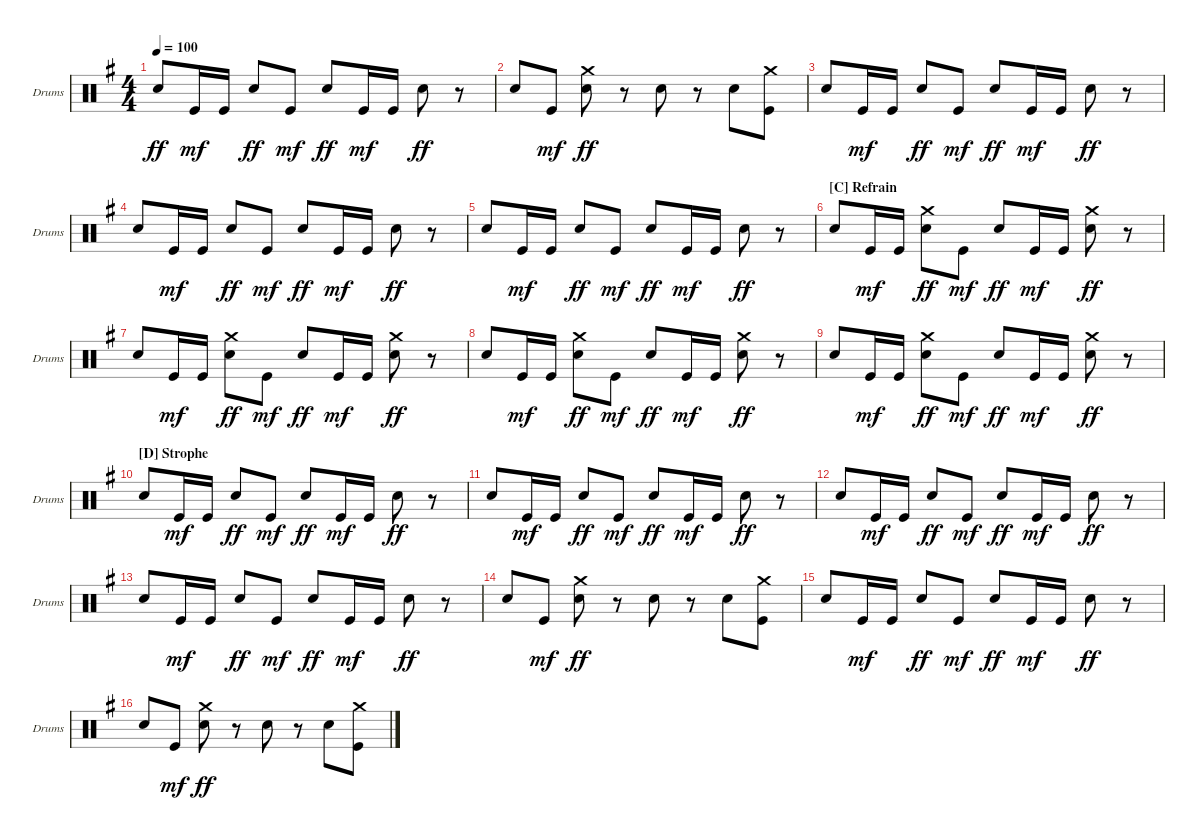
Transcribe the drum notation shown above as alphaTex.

\defaultSystemsLayout 4
\bracketExtendMode groupsimilarinstruments
\singleTrackTrackNamePolicy allsystems
\multiTrackTrackNamePolicy allsystems
\firstSystemTrackNameOrientation horizontal
\otherSystemsTrackNameOrientation horizontal
\track ("Drumkit" "Drums") {instrument percussion}
\staff {score}
\articulation defaults
\ts (4 4)
\tempo 100
\clef neutral
\scale
0.333333
\ks g "Snare (hit) 2".8{dy ff} "Kick (hit)".16{dy mf} "Kick (hit)".16 "Snare (hit) 2".8{dy ff} "Kick (hit)".8{dy mf} "Snare (hit) 2".8{dy ff} "Kick (hit)".16{dy mf} "Kick (hit)".16 "Snare (hit) 2".8{dy ff}
r.8 |
\scale
0.333333 "Snare (hit) 2".8 "Kick (hit)".8{dy mf} ("Crash medium (hit)" "Snare (hit) 2").8{dy ff} r.8 "Snare (hit) 2".8 r.8 "Snare (hit) 2".8 ("Kick (hit)" "Crash medium (hit)").8 |
\scale
0.333333 "Snare (hit) 2".8 "Kick (hit)".16{dy mf} "Kick (hit)".16 "Snare (hit) 2".8{dy ff} "Kick (hit)".8{dy mf} "Snare (hit) 2".8{dy ff} "Kick (hit)".16{dy mf} "Kick (hit)".16 "Snare (hit) 2".8{dy ff} r.8 |
\scale
0.333333 "Snare (hit) 2".8 "Kick (hit)".16{dy mf} "Kick (hit)".16 "Snare (hit) 2".8{dy ff} "Kick (hit)".8{dy mf} "Snare (hit) 2".8{dy ff} "Kick (hit)".16{dy mf} "Kick (hit)".16 "Snare (hit) 2".8{dy ff} r.8 |
\scale
0.333333 "Snare (hit) 2".8 "Kick (hit)".16{dy mf} "Kick (hit)".16 "Snare (hit) 2".8{dy ff} "Kick (hit)".8{dy mf} "Snare (hit) 2".8{dy ff} "Kick (hit)".16{dy mf} "Kick (hit)".16 "Snare (hit) 2".8{dy ff} r.8 |
\section ("C" "Refrain")
\scale
0.333333 "Snare (hit) 2".8 "Kick (hit)".16{dy mf} "Kick (hit)".16 ("Snare (hit) 2" "Crash medium (hit)").8{dy ff} "Kick (hit)".8{dy mf} "Snare (hit) 2".8{dy ff} "Kick (hit)".16{dy mf} "Kick (hit)".16 ("Snare (hit) 2" "Crash medium (hit)").8{dy ff} r.8 |
\scale
0.333333 "Snare (hit) 2".8 "Kick (hit)".16{dy mf} "Kick (hit)".16 ("Snare (hit) 2" "Crash medium (hit)").8{dy ff} "Kick (hit)".8{dy mf} "Snare (hit) 2".8{dy ff} "Kick (hit)".16{dy mf} "Kick (hit)".16 ("Snare (hit) 2" "Crash medium (hit)").8{dy ff} r.8 |
\scale
0.333333 "Snare (hit) 2".8 "Kick (hit)".16{dy mf} "Kick (hit)".16 ("Snare (hit) 2" "Crash medium (hit)").8{dy ff} "Kick (hit)".8{dy mf} "Snare (hit) 2".8{dy ff} "Kick (hit)".16{dy mf} "Kick (hit)".16 ("Snare (hit) 2" "Crash medium (hit)").8{dy ff} r.8 |
\scale
0.333333 "Snare (hit) 2".8 "Kick (hit)".16{dy mf} "Kick (hit)".16 ("Snare (hit) 2" "Crash medium (hit)").8{dy ff} "Kick (hit)".8{dy mf} "Snare (hit) 2".8{dy ff} "Kick (hit)".16{dy mf} "Kick (hit)".16 ("Snare (hit) 2" "Crash medium (hit)").8{dy ff} r.8 |
\section ("D" "Strophe")
\scale
0.333333 "Snare (hit) 2".8 "Kick (hit)".16{dy mf} "Kick (hit)".16 "Snare (hit) 2".8{dy ff} "Kick (hit)".8{dy mf} "Snare (hit) 2".8{dy ff} "Kick (hit)".16{dy mf} "Kick (hit)".16 "Snare (hit) 2".8{dy ff} r.8 |
\scale
0.333333 "Snare (hit) 2".8 "Kick (hit)".16{dy mf} "Kick (hit)".16 "Snare (hit) 2".8{dy ff} "Kick (hit)".8{dy mf} "Snare (hit) 2".8{dy ff} "Kick (hit)".16{dy mf} "Kick (hit)".16 "Snare (hit) 2".8{dy ff} r.8 |
\scale
0.333333 "Snare (hit) 2".8 "Kick (hit)".16{dy mf} "Kick (hit)".16 "Snare (hit) 2".8{dy ff} "Kick (hit)".8{dy mf} "Snare (hit) 2".8{dy ff} "Kick (hit)".16{dy mf} "Kick (hit)".16 "Snare (hit) 2".8{dy ff} r.8 |
\scale
0.333333 "Snare (hit) 2".8 "Kick (hit)".16{dy mf} "Kick (hit)".16 "Snare (hit) 2".8{dy ff} "Kick (hit)".8{dy mf} "Snare (hit) 2".8{dy ff} "Kick (hit)".16{dy mf} "Kick (hit)".16 "Snare (hit) 2".8{dy ff} r.8 |
\scale
0.333333 "Snare (hit) 2".8 "Kick (hit)".8{dy mf} ("Crash medium (hit)" "Snare (hit) 2").8{dy ff} r.8 "Snare (hit) 2".8 r.8 "Snare (hit) 2".8 ("Kick (hit)" "Crash medium (hit)").8 |
\scale
0.333333 "Snare (hit) 2".8 "Kick (hit)".16{dy mf} "Kick (hit)".16 "Snare (hit) 2".8{dy ff} "Kick (hit)".8{dy mf} "Snare (hit) 2".8{dy ff} "Kick (hit)".16{dy mf} "Kick (hit)".16 "Snare (hit) 2".8{dy ff} r.8 |
\scale
0.333333 "Snare (hit) 2".8 "Kick (hit)".8{dy mf} ("Crash medium (hit)" "Snare (hit) 2").8{dy ff} r.8 "Snare (hit) 2".8 r.8 "Snare (hit) 2".8 ("Kick (hit)" "Crash medium (hit)").8
